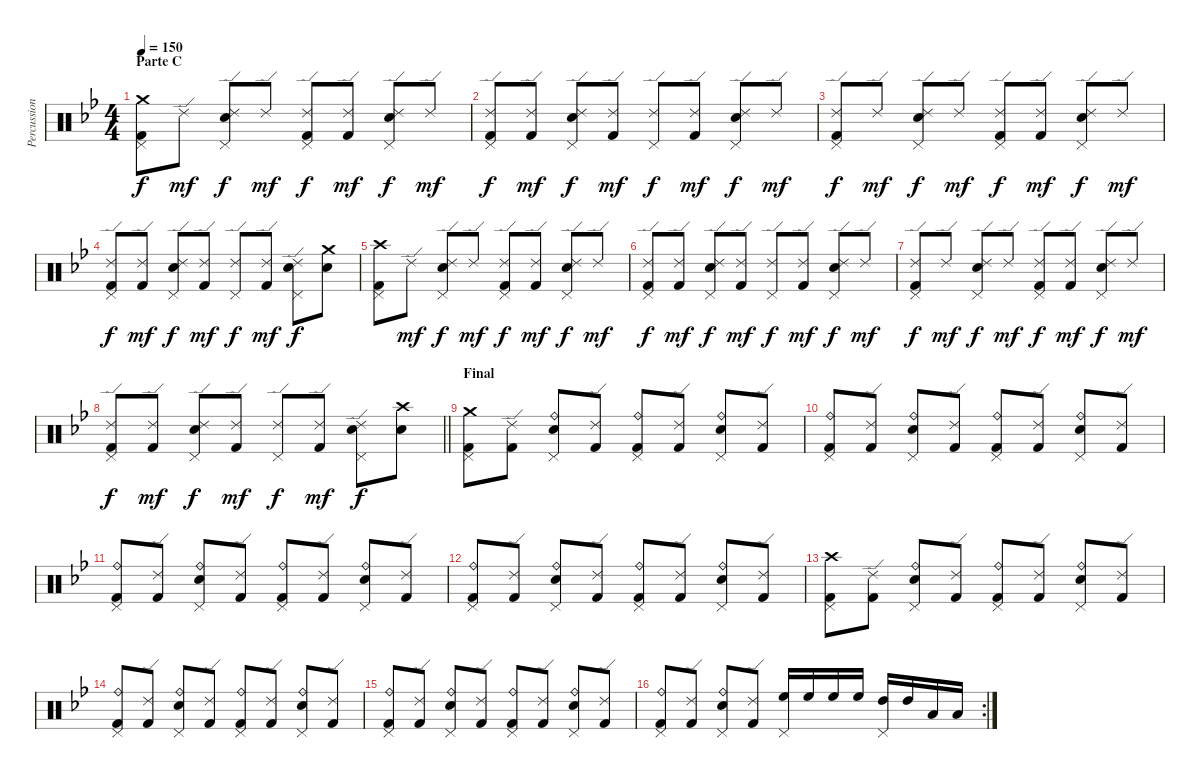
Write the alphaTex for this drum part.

\track ("Percussion" "Percussion") {instrument percussion}
\staff {score}
\articulation defaults
\ts (4 4)
\section ("" "Parte C")
\tempo 150
\clef neutral
\ks gminor
("Crash medium (hit)" "Pedal Hi-Hat (hit)" "Kick (hit) 2").8{dy f} "Ride (edge) 2".8{dy mf} ("Ride (edge) 2" "Electric Snare (hit)" "Pedal Hi-Hat (hit)").8{dy f} "Ride (edge) 2".8{dy mf} ("Ride (edge) 2" "Pedal Hi-Hat (hit)" "Kick (hit) 2").8{dy f} ("Ride (edge) 2" "Kick (hit) 2").8{dy mf} ("Ride (edge) 2" "Electric Snare (hit)" "Pedal Hi-Hat (hit)").8{dy f} "Ride (edge) 2".8{dy mf} |
("Ride (edge) 2" "Pedal Hi-Hat (hit)" "Kick (hit) 2").8{dy f} ("Ride (edge) 2" "Kick (hit) 2").8{dy mf} ("Ride (edge) 2" "Electric Snare (hit)" "Pedal Hi-Hat (hit)").8{dy f} ("Ride (edge) 2" "Kick (hit) 2").8{dy mf} ("Ride (edge) 2" "Pedal Hi-Hat (hit)").8{dy f} ("Ride (edge) 2" "Kick (hit) 2").8{dy mf} ("Ride (edge) 2" "Electric Snare (hit)" "Pedal Hi-Hat (hit)").8{dy f} "Ride (edge) 2".8{dy mf} |
("Ride (edge) 2" "Pedal Hi-Hat (hit)" "Kick (hit) 2").8{dy f} "Ride (edge) 2".8{dy mf} ("Ride (edge) 2" "Electric Snare (hit)" "Pedal Hi-Hat (hit)").8{dy f} "Ride (edge) 2".8{dy mf} ("Ride (edge) 2" "Pedal Hi-Hat (hit)" "Kick (hit) 2").8{dy f} ("Ride (edge) 2" "Kick (hit) 2").8{dy mf} ("Ride (edge) 2" "Electric Snare (hit)" "Pedal Hi-Hat (hit)").8{dy f} "Ride (edge) 2".8{dy mf} |
("Ride (edge) 2" "Pedal Hi-Hat (hit)" "Kick (hit) 2").8{dy f} ("Ride (edge) 2" "Kick (hit) 2").8{dy mf} ("Ride (edge) 2" "Electric Snare (hit)" "Pedal Hi-Hat (hit)").8{dy f} ("Ride (edge) 2" "Kick (hit) 2").8{dy mf} ("Ride (edge) 2" "Pedal Hi-Hat (hit)").8{dy f} ("Ride (edge) 2" "Kick (hit) 2").8{dy mf} ("Ride (edge) 2" "Electric Snare (hit)" "Pedal Hi-Hat (hit)").8{dy f} ("Crash medium (hit)" "Electric Snare (hit)").8 |
("Crash high (hit)" "Pedal Hi-Hat (hit)" "Kick (hit) 2").8 "Ride (edge) 2".8{dy mf} ("Ride (edge) 2" "Electric Snare (hit)" "Pedal Hi-Hat (hit)").8{dy f} "Ride (edge) 2".8{dy mf} ("Ride (edge) 2" "Pedal Hi-Hat (hit)" "Kick (hit) 2").8{dy f} ("Ride (edge) 2" "Kick (hit) 2").8{dy mf} ("Ride (edge) 2" "Electric Snare (hit)" "Pedal Hi-Hat (hit)").8{dy f} "Ride (edge) 2".8{dy mf} |
("Ride (edge) 2" "Pedal Hi-Hat (hit)" "Kick (hit) 2").8{dy f} ("Ride (edge) 2" "Kick (hit) 2").8{dy mf} ("Ride (edge) 2" "Electric Snare (hit)" "Pedal Hi-Hat (hit)").8{dy f} ("Ride (edge) 2" "Kick (hit) 2").8{dy mf} ("Ride (edge) 2" "Pedal Hi-Hat (hit)").8{dy f} ("Ride (edge) 2" "Kick (hit) 2").8{dy mf} ("Ride (edge) 2" "Electric Snare (hit)" "Pedal Hi-Hat (hit)").8{dy f} "Ride (edge) 2".8{dy mf} |
("Ride (edge) 2" "Pedal Hi-Hat (hit)" "Kick (hit) 2").8{dy f} "Ride (edge) 2".8{dy mf} ("Ride (edge) 2" "Electric Snare (hit)" "Pedal Hi-Hat (hit)").8{dy f} "Ride (edge) 2".8{dy mf} ("Ride (edge) 2" "Pedal Hi-Hat (hit)" "Kick (hit) 2").8{dy f} ("Ride (edge) 2" "Kick (hit) 2").8{dy mf} ("Ride (edge) 2" "Electric Snare (hit)" "Pedal Hi-Hat (hit)").8{dy f} "Ride (edge) 2".8{dy mf} |
\barLineRight lightlight
("Ride (edge) 2" "Pedal Hi-Hat (hit)" "Kick (hit) 2").8{dy f} ("Ride (edge) 2" "Kick (hit) 2").8{dy mf} ("Ride (edge) 2" "Electric Snare (hit)" "Pedal Hi-Hat (hit)").8{dy f} ("Ride (edge) 2" "Kick (hit) 2").8{dy mf} ("Ride (edge) 2" "Pedal Hi-Hat (hit)").8{dy f} ("Ride (edge) 2" "Kick (hit) 2").8{dy mf} ("Ride (edge) 2" "Electric Snare (hit)" "Pedal Hi-Hat (hit)").8{dy f} ("Crash high (hit)" "Electric Snare (hit)").8 |
\section ("" "Final")
("Crash medium (hit)" "Pedal Hi-Hat (hit)" "Kick (hit) 2").8 ("Ride (edge) 2" "Kick (hit) 2").8 ("Ride (bell)" "Electric Snare (hit)" "Pedal Hi-Hat (hit)").8 ("Ride (edge) 2" "Kick (hit) 2").8 ("Ride (bell)" "Pedal Hi-Hat (hit)" "Kick (hit) 2").8 ("Ride (edge) 2" "Kick (hit) 2").8 ("Ride (bell)" "Electric Snare (hit)" "Pedal Hi-Hat (hit)").8 ("Ride (edge) 2" "Kick (hit) 2").8 |
("Ride (bell)" "Pedal Hi-Hat (hit)" "Kick (hit) 2").8 ("Ride (edge) 2" "Kick (hit) 2").8 ("Ride (bell)" "Electric Snare (hit)" "Pedal Hi-Hat (hit)").8 ("Ride (edge) 2" "Kick (hit) 2").8 ("Ride (bell)" "Pedal Hi-Hat (hit)" "Kick (hit) 2").8 ("Ride (edge) 2" "Kick (hit) 2").8 ("Ride (bell)" "Electric Snare (hit)" "Pedal Hi-Hat (hit)").8 ("Ride (edge) 2" "Kick (hit) 2").8 |
("Ride (bell)" "Pedal Hi-Hat (hit)" "Kick (hit) 2").8 ("Ride (edge) 2" "Kick (hit) 2").8 ("Ride (bell)" "Electric Snare (hit)" "Pedal Hi-Hat (hit)").8 ("Ride (edge) 2" "Kick (hit) 2").8 ("Ride (bell)" "Pedal Hi-Hat (hit)" "Kick (hit) 2").8 ("Ride (edge) 2" "Kick (hit) 2").8 ("Ride (bell)" "Electric Snare (hit)" "Pedal Hi-Hat (hit)").8 ("Ride (edge) 2" "Kick (hit) 2").8 |
("Ride (bell)" "Pedal Hi-Hat (hit)" "Kick (hit) 2").8 ("Ride (edge) 2" "Kick (hit) 2").8 ("Ride (bell)" "Electric Snare (hit)" "Pedal Hi-Hat (hit)").8 ("Ride (edge) 2" "Kick (hit) 2").8 ("Ride (bell)" "Pedal Hi-Hat (hit)" "Kick (hit) 2").8 ("Ride (edge) 2" "Kick (hit) 2").8 ("Ride (bell)" "Electric Snare (hit)" "Pedal Hi-Hat (hit)").8 ("Ride (edge) 2" "Kick (hit) 2").8 |
("Crash high (hit)" "Pedal Hi-Hat (hit)" "Kick (hit) 2").8 ("Ride (edge) 2" "Kick (hit) 2").8 ("Ride (bell)" "Electric Snare (hit)" "Pedal Hi-Hat (hit)").8 ("Ride (edge) 2" "Kick (hit) 2").8 ("Ride (bell)" "Pedal Hi-Hat (hit)" "Kick (hit) 2").8 ("Ride (edge) 2" "Kick (hit) 2").8 ("Ride (bell)" "Electric Snare (hit)" "Pedal Hi-Hat (hit)").8 ("Ride (edge) 2" "Kick (hit) 2").8 |
("Ride (bell)" "Pedal Hi-Hat (hit)" "Kick (hit) 2").8 ("Ride (edge) 2" "Kick (hit) 2").8 ("Ride (bell)" "Electric Snare (hit)" "Pedal Hi-Hat (hit)").8 ("Ride (edge) 2" "Kick (hit) 2").8 ("Ride (bell)" "Pedal Hi-Hat (hit)" "Kick (hit) 2").8 ("Ride (edge) 2" "Kick (hit) 2").8 ("Ride (bell)" "Electric Snare (hit)" "Pedal Hi-Hat (hit)").8 ("Ride (edge) 2" "Kick (hit) 2").8 |
("Ride (bell)" "Pedal Hi-Hat (hit)" "Kick (hit) 2").8 ("Ride (edge) 2" "Kick (hit) 2").8 ("Ride (bell)" "Electric Snare (hit)" "Pedal Hi-Hat (hit)").8 ("Ride (edge) 2" "Kick (hit) 2").8 ("Ride (bell)" "Pedal Hi-Hat (hit)" "Kick (hit) 2").8 ("Ride (edge) 2" "Kick (hit) 2").8 ("Ride (bell)" "Electric Snare (hit)" "Pedal Hi-Hat (hit)").8 ("Ride (edge) 2" "Kick (hit) 2").8 |
\rc 2
("Ride (bell)" "Pedal Hi-Hat (hit)" "Kick (hit) 2").8 ("Ride (edge) 2" "Kick (hit) 2").8 ("Ride (bell)" "Electric Snare (hit)" "Pedal Hi-Hat (hit)").8 ("Ride (edge) 2" "Kick (hit) 2").8 ("High Floor Tom (hit)" "Pedal Hi-Hat (hit)").16 "High Floor Tom (hit)".16 "High Floor Tom (hit)".16 "High Floor Tom (hit)".16 ("High Tom (hit)" "Pedal Hi-Hat (hit)").16 "High Tom (hit)".16 "Low Tom (hit)".16 "Low Tom (hit)".16
